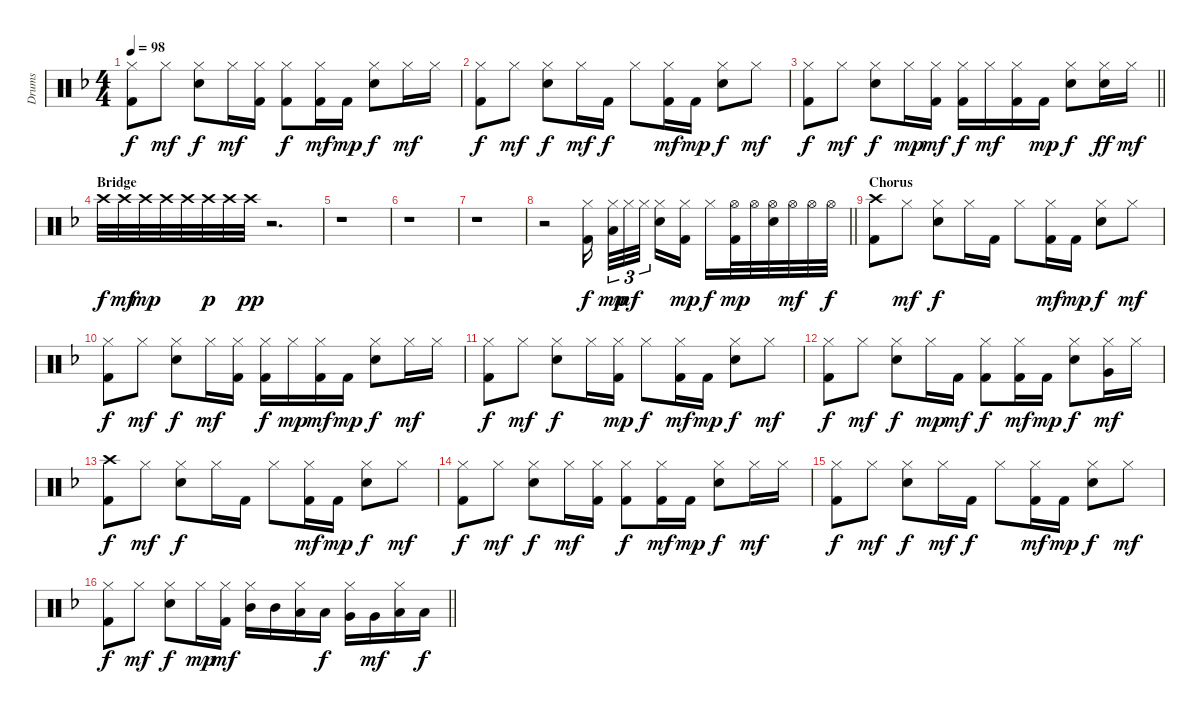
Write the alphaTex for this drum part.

\track ("Drums" "Drums") {instrument percussion}
\staff {score}
\articulation defaults
\ts (4 4)
\tempo 98
\clef neutral
\ks f
("Hi-Hat (closed)" "Kick (hit) 2").8{dy f} "Hi-Hat (closed)".8{dy mf} ("Hi-Hat (closed)" "Electric Snare (hit)").8{dy f} "Hi-Hat (closed)".16{dy mf} ("Hi-Hat (closed)" "Kick (hit) 2").16 ("Hi-Hat (closed)" "Kick (hit) 2").8{dy f} ("Hi-Hat (closed)" "Kick (hit) 2").16{dy mf} "Kick (hit) 2".16{dy mp} ("Hi-Hat (closed)" "Electric Snare (hit)").8{dy f} "Hi-Hat (closed)".16{dy mf} "Hi-Hat (closed)".16 |
("Hi-Hat (closed)" "Kick (hit) 2").8{dy f} "Hi-Hat (closed)".8{dy mf} ("Hi-Hat (closed)" "Electric Snare (hit)").8{dy f} "Hi-Hat (closed)".16{dy mf} "Kick (hit) 2".16{dy f} "Hi-Hat (closed)".8 ("Hi-Hat (closed)" "Kick (hit) 2").16{dy mf} "Kick (hit) 2".16{dy mp} ("Hi-Hat (closed)" "Electric Snare (hit)").8{dy f} "Hi-Hat (closed)".8{dy mf} |
\barLineRight lightlight
("Hi-Hat (closed)" "Kick (hit) 2").8{dy f} "Hi-Hat (closed)".8{dy mf} ("Hi-Hat (closed)" "Electric Snare (hit)").8{dy f} "Hi-Hat (closed)".16{dy mp} ("Hi-Hat (closed)" "Kick (hit) 2").16{dy mf} ("Hi-Hat (closed)" "Kick (hit) 2").16{dy f} "Hi-Hat (closed)".16{dy mf} ("Hi-Hat (closed)" "Kick (hit) 2").16 "Kick (hit) 2".16{dy mp} ("Hi-Hat (closed)" "Electric Snare (hit)").8{dy f} ("Hi-Hat (closed)" "Electric Snare (hit)").16{dy ff} "Hi-Hat (closed)".16{dy mf} |
\section ("" "Bridge")
"Crash high (hit)".32{dy f} "Crash high (hit)".32{dy mf} "Crash high (hit)".32{dy mp} "Crash high (hit)".32 "Crash high (hit)".32 "Crash high (hit)".32{dy p} "Crash high (hit)".32 "Crash high (hit)".32{dy pp} r.2{d} |
r.1 |
r.1 |
r.1 |
\barLineRight lightlight
r.2 ("Hi-Hat (closed)" "Kick (hit) 2").16{dy f beam splitsecondary} ("Hi-Hat (closed)" "Low Floor Tom (hit)").32{tu (3 2) dy mp} "Hi-Hat (closed)".32{tu (3 2) dy mf} "Hi-Hat (closed)".32{tu (3 2) beam splitsecondary} ("Hi-Hat (closed)" "Electric Snare (hit)").16 ("Hi-Hat (closed)" "Kick (hit) 2").16{dy mp} "Hi-Hat (closed)".16{dy f} ("Hi-Hat (open)" "Kick (hit) 2").32{dy mp} "Hi-Hat (open)".32 ("Hi-Hat (open)" "Electric Snare (hit)").32 "Hi-Hat (open)".32{dy mf} "Hi-Hat (open)".32 "Hi-Hat (open)".32{dy f} |
\section ("" "Chorus")
("Crash high (hit)" "Kick (hit) 2").8 "Hi-Hat (closed)".8{dy mf} ("Hi-Hat (closed)" "Electric Snare (hit)").8{dy f} "Hi-Hat (closed)".16 "Kick (hit) 2".16 "Hi-Hat (closed)".8 ("Hi-Hat (closed)" "Kick (hit) 2").16{dy mf} "Kick (hit) 2".16{dy mp} ("Hi-Hat (closed)" "Electric Snare (hit)").8{dy f} "Hi-Hat (closed)".8{dy mf} |
("Hi-Hat (closed)" "Kick (hit) 2").8{dy f} "Hi-Hat (closed)".8{dy mf} ("Hi-Hat (closed)" "Electric Snare (hit)").8{dy f} "Hi-Hat (closed)".16{dy mf} ("Hi-Hat (closed)" "Kick (hit) 2").16 ("Hi-Hat (closed)" "Kick (hit) 2").16{dy f} "Hi-Hat (closed)".16{dy mp} ("Hi-Hat (closed)" "Kick (hit) 2").16{dy mf} "Kick (hit) 2".16{dy mp} ("Hi-Hat (closed)" "Electric Snare (hit)").8{dy f} "Hi-Hat (closed)".16{dy mf} "Hi-Hat (closed)".16 |
("Hi-Hat (closed)" "Kick (hit) 2").8{dy f} "Hi-Hat (closed)".8{dy mf} ("Hi-Hat (closed)" "Electric Snare (hit)").8{dy f} "Hi-Hat (closed)".16 ("Hi-Hat (closed)" "Kick (hit) 2").16{dy mp} "Hi-Hat (closed)".8{dy f} ("Hi-Hat (closed)" "Kick (hit) 2").16{dy mf} "Kick (hit) 2".16{dy mp} ("Hi-Hat (closed)" "Electric Snare (hit)").8{dy f} "Hi-Hat (closed)".8{dy mf} |
("Hi-Hat (closed)" "Kick (hit) 2").8{dy f} "Hi-Hat (closed)".8{dy mf} ("Hi-Hat (closed)" "Electric Snare (hit)").8{dy f} "Hi-Hat (closed)".16{dy mp} "Kick (hit) 2".16{dy mf} ("Hi-Hat (closed)" "Kick (hit) 2").8{dy f} ("Hi-Hat (closed)" "Kick (hit) 2").16{dy mf} "Kick (hit) 2".16{dy mp} ("Hi-Hat (closed)" "Electric Snare (hit)").8{dy f} ("Hi-Hat (closed)" "Very Low Tom (hit)").16{dy mf} "Hi-Hat (closed)".16 |
("Crash high (hit)" "Kick (hit) 2").8{dy f} "Hi-Hat (closed)".8{dy mf} ("Hi-Hat (closed)" "Electric Snare (hit)").8{dy f} "Hi-Hat (closed)".16 "Kick (hit) 2".16 "Hi-Hat (closed)".8 ("Hi-Hat (closed)" "Kick (hit) 2").16{dy mf} "Kick (hit) 2".16{dy mp} ("Hi-Hat (closed)" "Electric Snare (hit)").8{dy f} "Hi-Hat (closed)".8{dy mf} |
("Hi-Hat (closed)" "Kick (hit) 2").8{dy f} "Hi-Hat (closed)".8{dy mf} ("Hi-Hat (closed)" "Electric Snare (hit)").8{dy f} "Hi-Hat (closed)".16{dy mf} ("Hi-Hat (closed)" "Kick (hit) 2").16 ("Hi-Hat (closed)" "Kick (hit) 2").8{dy f} ("Hi-Hat (closed)" "Kick (hit) 2").16{dy mf} "Kick (hit) 2".16{dy mp} ("Hi-Hat (closed)" "Electric Snare (hit)").8{dy f} "Hi-Hat (closed)".16{dy mf} "Hi-Hat (closed)".16 |
("Hi-Hat (closed)" "Kick (hit) 2").8{dy f} "Hi-Hat (closed)".8{dy mf} ("Hi-Hat (closed)" "Electric Snare (hit)").8{dy f} "Hi-Hat (closed)".16{dy mf} "Kick (hit) 2".16{dy f} "Hi-Hat (closed)".8 ("Hi-Hat (closed)" "Kick (hit) 2").16{dy mf} "Kick (hit) 2".16{dy mp} ("Hi-Hat (closed)" "Electric Snare (hit)").8{dy f} "Hi-Hat (closed)".8{dy mf} |
\barLineRight lightlight
("Hi-Hat (closed)" "Kick (hit) 2").8{dy f} "Hi-Hat (closed)".8{dy mf} ("Hi-Hat (closed)" "Electric Snare (hit)").8{dy f} "Hi-Hat (closed)".16{dy mp} ("Hi-Hat (closed)" "Kick (hit) 2").16{dy mf} ("Hi-Hat (closed)" "Mid Tom (hit)").16 "Mid Tom (hit)".16 ("Hi-Hat (closed)" "Low Tom (hit)").16 "Low Tom (hit)".16{dy f} ("Hi-Hat (closed)" "Very Low Tom (hit)").16 "Very Low Tom (hit)".16{dy mf} ("Hi-Hat (closed)" "Low Floor Tom (hit)").16 "Low Floor Tom (hit)".16{dy f}
